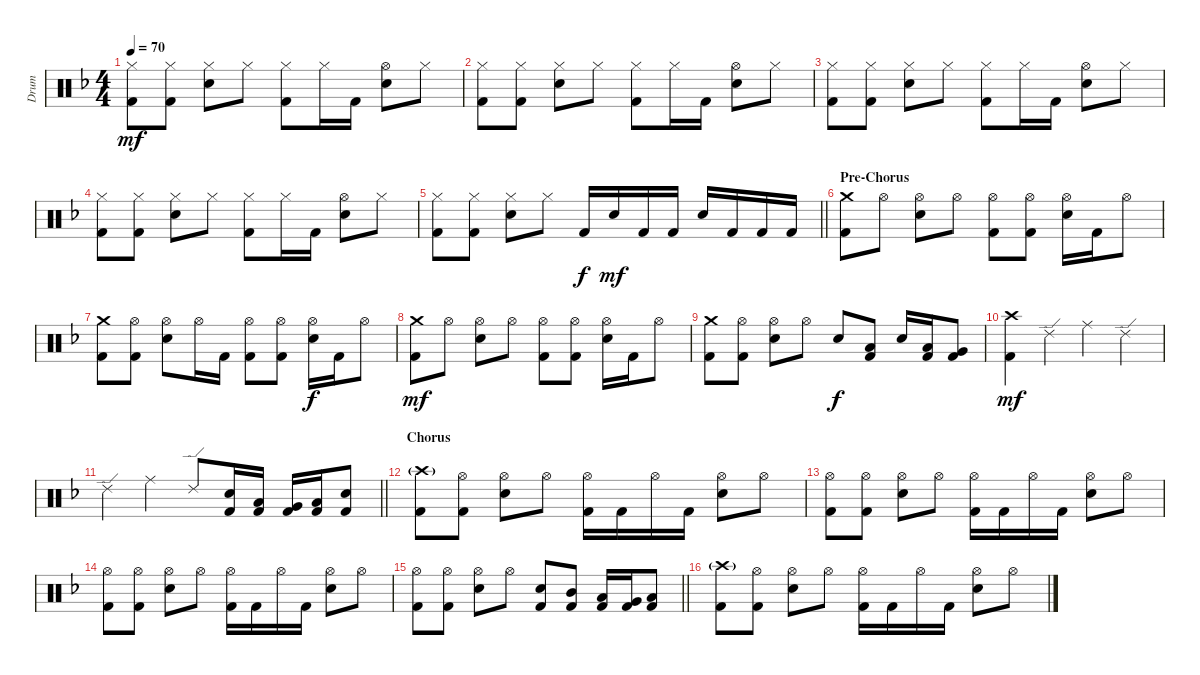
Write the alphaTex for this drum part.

\track ("Drum" "Drum") {instrument percussion}
\staff {score}
\articulation defaults
\ts (4 4)
\tempo 70
\clef neutral
\ks f
("Hi-Hat (closed)" "Kick (hit) 2").8{dy mf} ("Hi-Hat (closed)" "Kick (hit) 2").8 ("Hi-Hat (closed)" "Electric Snare (hit)").8 "Hi-Hat (closed)".8 ("Hi-Hat (closed)" "Kick (hit) 2").8 "Hi-Hat (closed)".16 "Kick (hit) 2".16 ("Hi-Hat (open)" "Electric Snare (hit)").8 "Hi-Hat (closed)".8 |
("Hi-Hat (closed)" "Kick (hit) 2").8 ("Hi-Hat (closed)" "Kick (hit) 2").8 ("Hi-Hat (closed)" "Electric Snare (hit)").8 "Hi-Hat (closed)".8 ("Hi-Hat (closed)" "Kick (hit) 2").8 "Hi-Hat (closed)".16 "Kick (hit) 2".16 ("Hi-Hat (open)" "Electric Snare (hit)").8 "Hi-Hat (closed)".8 |
("Hi-Hat (closed)" "Kick (hit) 2").8 ("Hi-Hat (closed)" "Kick (hit) 2").8 ("Hi-Hat (closed)" "Electric Snare (hit)").8 "Hi-Hat (closed)".8 ("Hi-Hat (closed)" "Kick (hit) 2").8 "Hi-Hat (closed)".16 "Kick (hit) 2".16 ("Hi-Hat (open)" "Electric Snare (hit)").8 "Hi-Hat (closed)".8 |
("Hi-Hat (closed)" "Kick (hit) 2").8 ("Hi-Hat (closed)" "Kick (hit) 2").8 ("Hi-Hat (closed)" "Electric Snare (hit)").8 "Hi-Hat (closed)".8 ("Hi-Hat (closed)" "Kick (hit) 2").8 "Hi-Hat (closed)".16 "Kick (hit) 2".16 ("Hi-Hat (open)" "Electric Snare (hit)").8 "Hi-Hat (closed)".8 |
\barLineRight lightlight
("Hi-Hat (closed)" "Kick (hit) 2").8 ("Hi-Hat (closed)" "Kick (hit) 2").8 ("Hi-Hat (closed)" "Electric Snare (hit)").8 "Hi-Hat (closed)".8 "Kick (hit) 2".16{dy f} "Electric Snare (hit)".16{dy mf} "Kick (hit) 2".16 "Kick (hit) 2".16 "Electric Snare (hit)".16 "Kick (hit) 2".16 "Kick (hit) 2".16 "Kick (hit) 2".16 |
\section ("" "Pre-Chorus")
("Crash medium (hit)" "Kick (hit) 2").8 "Hi-Hat (open)".8 ("Hi-Hat (open)" "Electric Snare (hit)").8 "Hi-Hat (open)".8 ("Hi-Hat (open)" "Kick (hit) 2").8 ("Hi-Hat (open)" "Kick (hit) 2").8 ("Hi-Hat (open)" "Electric Snare (hit)").16 "Kick (hit) 2".16 "Hi-Hat (open)".8 |
("Crash medium (hit)" "Kick (hit) 2").8 ("Hi-Hat (open)" "Kick (hit) 2").8 ("Hi-Hat (open)" "Electric Snare (hit)").8 "Hi-Hat (open)".16 "Kick (hit) 2".16 ("Hi-Hat (open)" "Kick (hit) 2").8 ("Hi-Hat (open)" "Kick (hit) 2").8 ("Hi-Hat (open)" "Electric Snare (hit)").16{dy f} "Kick (hit) 2".16 "Hi-Hat (open)".8 |
("Crash medium (hit)" "Kick (hit) 2").8{dy mf} "Hi-Hat (open)".8 ("Hi-Hat (open)" "Electric Snare (hit)").8 "Hi-Hat (open)".8 ("Hi-Hat (open)" "Kick (hit) 2").8 ("Hi-Hat (open)" "Kick (hit) 2").8 ("Hi-Hat (open)" "Electric Snare (hit)").16 "Kick (hit) 2".16 "Hi-Hat (open)".8 |
("Crash medium (hit)" "Kick (hit) 2").8 ("Hi-Hat (open)" "Kick (hit) 2").8 ("Hi-Hat (open)" "Electric Snare (hit)").8 "Hi-Hat (open)".8 "Electric Snare (hit)".8{dy f} ("Low Tom (hit)" "Kick (hit) 2").8 "Electric Snare (hit)".16 ("Low Tom (hit)" "Kick (hit) 2").16 ("Very Low Tom (hit)" "Kick (hit) 2").8 |
("Crash high (hit)" "Kick (hit) 2").4{dy mf} "Ride (edge) 2".4 "Ride (middle)".4 "Ride (edge) 2".4 |
\barLineRight lightlight "Ride (edge) 2".4 "Ride (middle)".4 "Ride (edge) 2".8
("Electric Snare (hit)" "Kick (hit) 2").16 ("Low Tom (hit)" "Kick (hit) 2").16 ("Very Low Tom (hit)" "Kick (hit) 2").16 ("Low Floor Tom (hit)" "Kick (hit) 2").16 ("Electric Snare (hit)" "Kick (hit) 2").8 |
\section ("" "Chorus")
("Crash high (hit)"{g} "Kick (hit) 2").8 ("Hi-Hat (open)" "Kick (hit) 2").8 ("Hi-Hat (open)" "Electric Snare (hit)").8 "Hi-Hat (open)".8 ("Hi-Hat (open)" "Kick (hit) 2").16 "Kick (hit) 2".16 "Hi-Hat (open)".16 "Kick (hit) 2".16 ("Hi-Hat (open)" "Electric Snare (hit)").8 "Hi-Hat (open)".8 |
("Hi-Hat (open)" "Kick (hit) 2").8 ("Hi-Hat (open)" "Kick (hit) 2").8 ("Hi-Hat (open)" "Electric Snare (hit)").8 "Hi-Hat (open)".8 ("Hi-Hat (open)" "Kick (hit) 2").16 "Kick (hit) 2".16 "Hi-Hat (open)".16 "Kick (hit) 2".16 ("Hi-Hat (open)" "Electric Snare (hit)").8 "Hi-Hat (open)".8 |
("Hi-Hat (open)" "Kick (hit) 2").8 ("Hi-Hat (open)" "Kick (hit) 2").8 ("Hi-Hat (open)" "Electric Snare (hit)").8 "Hi-Hat (open)".8 ("Hi-Hat (open)" "Kick (hit) 2").16 "Kick (hit) 2".16 "Hi-Hat (open)".16 "Kick (hit) 2".16 ("Hi-Hat (open)" "Electric Snare (hit)").8 "Hi-Hat (open)".8 |
\barLineRight lightlight
("Hi-Hat (open)" "Kick (hit) 2").8 ("Hi-Hat (open)" "Kick (hit) 2").8 ("Hi-Hat (open)" "Electric Snare (hit)").8 "Hi-Hat (open)".8 ("Electric Snare (hit)" "Kick (hit) 2").8 ("Mid Tom (hit)" "Kick (hit) 2").8 ("Low Tom (hit)" "Kick (hit) 2").16 ("Very Low Tom (hit)" "Kick (hit) 2").16 ("Low Floor Tom (hit)" "Kick (hit) 2").8 |
("Crash high (hit)"{g} "Kick (hit) 2").8 ("Hi-Hat (open)" "Kick (hit) 2").8 ("Hi-Hat (open)" "Electric Snare (hit)").8 "Hi-Hat (open)".8 ("Hi-Hat (open)" "Kick (hit) 2").16 "Kick (hit) 2".16 "Hi-Hat (open)".16 "Kick (hit) 2".16 ("Hi-Hat (open)" "Electric Snare (hit)").8 "Hi-Hat (open)".8
